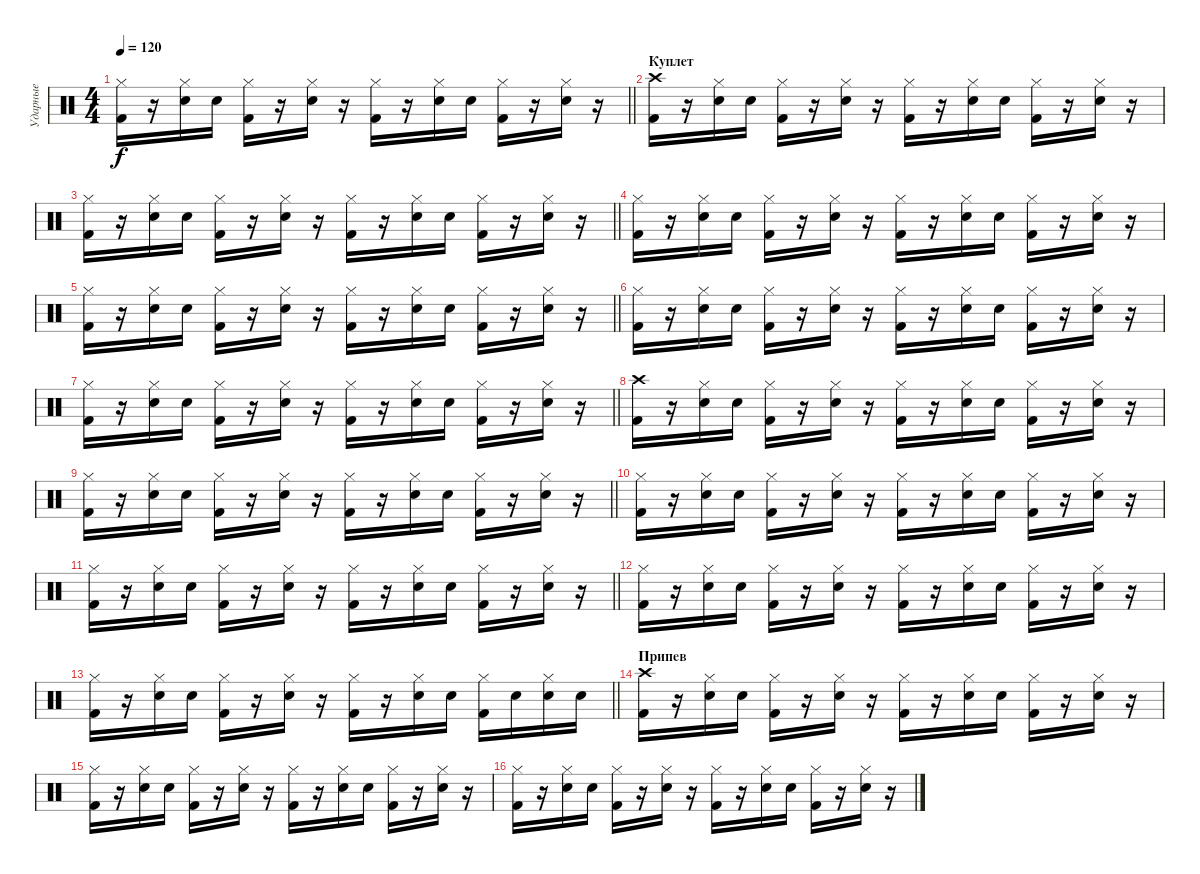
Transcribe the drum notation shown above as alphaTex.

\track ("Ударные" "Ударные") {instrument percussion}
\staff {score}
\articulation defaults
\ts (4 4)
\tempo 120
\clef neutral
\barLineRight lightlight
\ks c
("Hi-Hat (closed)" "Kick (hit) 2").16{dy f} r.16 ("Hi-Hat (closed)" "Electric Snare (hit)").16 "Electric Snare (hit)".16 ("Hi-Hat (closed)" "Kick (hit) 2").16 r.16 ("Hi-Hat (closed)" "Electric Snare (hit)").16 r.16 ("Hi-Hat (closed)" "Kick (hit) 2").16 r.16 ("Hi-Hat (closed)" "Electric Snare (hit)").16 "Electric Snare (hit)".16 ("Hi-Hat (closed)" "Kick (hit) 2").16 r.16 ("Hi-Hat (closed)" "Electric Snare (hit)").16 r.16 |
\section ("" "Куплет")
("Crash high (hit)" "Kick (hit) 2").16 r.16 ("Hi-Hat (closed)" "Electric Snare (hit)").16 "Electric Snare (hit)".16 ("Hi-Hat (closed)" "Kick (hit) 2").16 r.16 ("Hi-Hat (closed)" "Electric Snare (hit)").16 r.16 ("Hi-Hat (closed)" "Kick (hit) 2").16 r.16 ("Hi-Hat (closed)" "Electric Snare (hit)").16 "Electric Snare (hit)".16 ("Hi-Hat (closed)" "Kick (hit) 2").16 r.16 ("Hi-Hat (closed)" "Electric Snare (hit)").16 r.16 |
\barLineRight lightlight
("Hi-Hat (closed)" "Kick (hit) 2").16 r.16 ("Hi-Hat (closed)" "Electric Snare (hit)").16 "Electric Snare (hit)".16 ("Hi-Hat (closed)" "Kick (hit) 2").16 r.16 ("Hi-Hat (closed)" "Electric Snare (hit)").16 r.16 ("Hi-Hat (closed)" "Kick (hit) 2").16 r.16 ("Hi-Hat (closed)" "Electric Snare (hit)").16 "Electric Snare (hit)".16 ("Hi-Hat (closed)" "Kick (hit) 2").16 r.16 ("Hi-Hat (closed)" "Electric Snare (hit)").16 r.16 |
("Hi-Hat (closed)" "Kick (hit) 2").16 r.16 ("Hi-Hat (closed)" "Electric Snare (hit)").16 "Electric Snare (hit)".16 ("Hi-Hat (closed)" "Kick (hit) 2").16 r.16 ("Hi-Hat (closed)" "Electric Snare (hit)").16 r.16 ("Hi-Hat (closed)" "Kick (hit) 2").16 r.16 ("Hi-Hat (closed)" "Electric Snare (hit)").16 "Electric Snare (hit)".16 ("Hi-Hat (closed)" "Kick (hit) 2").16 r.16 ("Hi-Hat (closed)" "Electric Snare (hit)").16 r.16 |
\barLineRight lightlight
("Hi-Hat (closed)" "Kick (hit) 2").16 r.16 ("Hi-Hat (closed)" "Electric Snare (hit)").16 "Electric Snare (hit)".16 ("Hi-Hat (closed)" "Kick (hit) 2").16 r.16 ("Hi-Hat (closed)" "Electric Snare (hit)").16 r.16 ("Hi-Hat (closed)" "Kick (hit) 2").16 r.16 ("Hi-Hat (closed)" "Electric Snare (hit)").16 "Electric Snare (hit)".16 ("Hi-Hat (closed)" "Kick (hit) 2").16 r.16 ("Hi-Hat (closed)" "Electric Snare (hit)").16 r.16 |
("Hi-Hat (closed)" "Kick (hit) 2").16 r.16 ("Hi-Hat (closed)" "Electric Snare (hit)").16 "Electric Snare (hit)".16 ("Hi-Hat (closed)" "Kick (hit) 2").16 r.16 ("Hi-Hat (closed)" "Electric Snare (hit)").16 r.16 ("Hi-Hat (closed)" "Kick (hit) 2").16 r.16 ("Hi-Hat (closed)" "Electric Snare (hit)").16 "Electric Snare (hit)".16 ("Hi-Hat (closed)" "Kick (hit) 2").16 r.16 ("Hi-Hat (closed)" "Electric Snare (hit)").16 r.16 |
\barLineRight lightlight
("Hi-Hat (closed)" "Kick (hit) 2").16 r.16 ("Hi-Hat (closed)" "Electric Snare (hit)").16 "Electric Snare (hit)".16 ("Hi-Hat (closed)" "Kick (hit) 2").16 r.16 ("Hi-Hat (closed)" "Electric Snare (hit)").16 r.16 ("Hi-Hat (closed)" "Kick (hit) 2").16 r.16 ("Hi-Hat (closed)" "Electric Snare (hit)").16 "Electric Snare (hit)".16 ("Hi-Hat (closed)" "Kick (hit) 2").16 r.16 ("Hi-Hat (closed)" "Electric Snare (hit)").16 r.16 |
("Crash high (hit)" "Kick (hit) 2").16 r.16 ("Hi-Hat (closed)" "Electric Snare (hit)").16 "Electric Snare (hit)".16 ("Hi-Hat (closed)" "Kick (hit) 2").16 r.16 ("Hi-Hat (closed)" "Electric Snare (hit)").16 r.16 ("Hi-Hat (closed)" "Kick (hit) 2").16 r.16 ("Hi-Hat (closed)" "Electric Snare (hit)").16 "Electric Snare (hit)".16 ("Hi-Hat (closed)" "Kick (hit) 2").16 r.16 ("Hi-Hat (closed)" "Electric Snare (hit)").16 r.16 |
\barLineRight lightlight
("Hi-Hat (closed)" "Kick (hit) 2").16 r.16 ("Hi-Hat (closed)" "Electric Snare (hit)").16 "Electric Snare (hit)".16 ("Hi-Hat (closed)" "Kick (hit) 2").16 r.16 ("Hi-Hat (closed)" "Electric Snare (hit)").16 r.16 ("Hi-Hat (closed)" "Kick (hit) 2").16 r.16 ("Hi-Hat (closed)" "Electric Snare (hit)").16 "Electric Snare (hit)".16 ("Hi-Hat (closed)" "Kick (hit) 2").16 r.16 ("Hi-Hat (closed)" "Electric Snare (hit)").16 r.16 |
("Hi-Hat (closed)" "Kick (hit) 2").16 r.16 ("Hi-Hat (closed)" "Electric Snare (hit)").16 "Electric Snare (hit)".16 ("Hi-Hat (closed)" "Kick (hit) 2").16 r.16 ("Hi-Hat (closed)" "Electric Snare (hit)").16 r.16 ("Hi-Hat (closed)" "Kick (hit) 2").16 r.16 ("Hi-Hat (closed)" "Electric Snare (hit)").16 "Electric Snare (hit)".16 ("Hi-Hat (closed)" "Kick (hit) 2").16 r.16 ("Hi-Hat (closed)" "Electric Snare (hit)").16 r.16 |
\barLineRight lightlight
("Hi-Hat (closed)" "Kick (hit) 2").16 r.16 ("Hi-Hat (closed)" "Electric Snare (hit)").16 "Electric Snare (hit)".16 ("Hi-Hat (closed)" "Kick (hit) 2").16 r.16 ("Hi-Hat (closed)" "Electric Snare (hit)").16 r.16 ("Hi-Hat (closed)" "Kick (hit) 2").16 r.16 ("Hi-Hat (closed)" "Electric Snare (hit)").16 "Electric Snare (hit)".16 ("Hi-Hat (closed)" "Kick (hit) 2").16 r.16 ("Hi-Hat (closed)" "Electric Snare (hit)").16 r.16 |
("Hi-Hat (closed)" "Kick (hit) 2").16 r.16 ("Hi-Hat (closed)" "Electric Snare (hit)").16 "Electric Snare (hit)".16 ("Hi-Hat (closed)" "Kick (hit) 2").16 r.16 ("Hi-Hat (closed)" "Electric Snare (hit)").16 r.16 ("Hi-Hat (closed)" "Kick (hit) 2").16 r.16 ("Hi-Hat (closed)" "Electric Snare (hit)").16 "Electric Snare (hit)".16 ("Hi-Hat (closed)" "Kick (hit) 2").16 r.16 ("Hi-Hat (closed)" "Electric Snare (hit)").16 r.16 |
\barLineRight lightlight
("Hi-Hat (closed)" "Kick (hit) 2").16 r.16 ("Hi-Hat (closed)" "Electric Snare (hit)").16 "Electric Snare (hit)".16 ("Hi-Hat (closed)" "Kick (hit) 2").16 r.16 ("Hi-Hat (closed)" "Electric Snare (hit)").16 r.16 ("Hi-Hat (closed)" "Kick (hit) 2").16 r.16 ("Hi-Hat (closed)" "Electric Snare (hit)").16 "Electric Snare (hit)".16 ("Hi-Hat (closed)" "Kick (hit) 2").16 "Electric Snare (hit)".16 ("Hi-Hat (closed)" "Electric Snare (hit)").16 "Electric Snare (hit)".16 |
\section ("" "Припев")
("Crash high (hit)" "Kick (hit) 2").16 r.16 ("Hi-Hat (closed)" "Electric Snare (hit)").16 "Electric Snare (hit)".16 ("Hi-Hat (closed)" "Kick (hit) 2").16 r.16 ("Hi-Hat (closed)" "Electric Snare (hit)").16 r.16 ("Hi-Hat (closed)" "Kick (hit) 2").16 r.16 ("Hi-Hat (closed)" "Electric Snare (hit)").16 "Electric Snare (hit)".16 ("Hi-Hat (closed)" "Kick (hit) 2").16 r.16 ("Hi-Hat (closed)" "Electric Snare (hit)").16 r.16 |
("Hi-Hat (closed)" "Kick (hit) 2").16 r.16 ("Hi-Hat (closed)" "Electric Snare (hit)").16 "Electric Snare (hit)".16 ("Hi-Hat (closed)" "Kick (hit) 2").16 r.16 ("Hi-Hat (closed)" "Electric Snare (hit)").16 r.16 ("Hi-Hat (closed)" "Kick (hit) 2").16 r.16 ("Hi-Hat (closed)" "Electric Snare (hit)").16 "Electric Snare (hit)".16 ("Hi-Hat (closed)" "Kick (hit) 2").16 r.16 ("Hi-Hat (closed)" "Electric Snare (hit)").16 r.16 |
("Hi-Hat (closed)" "Kick (hit) 2").16 r.16 ("Hi-Hat (closed)" "Electric Snare (hit)").16 "Electric Snare (hit)".16 ("Hi-Hat (closed)" "Kick (hit) 2").16 r.16 ("Hi-Hat (closed)" "Electric Snare (hit)").16 r.16 ("Hi-Hat (closed)" "Kick (hit) 2").16 r.16 ("Hi-Hat (closed)" "Electric Snare (hit)").16 "Electric Snare (hit)".16 ("Hi-Hat (closed)" "Kick (hit) 2").16 r.16 ("Hi-Hat (closed)" "Electric Snare (hit)").16 r.16
